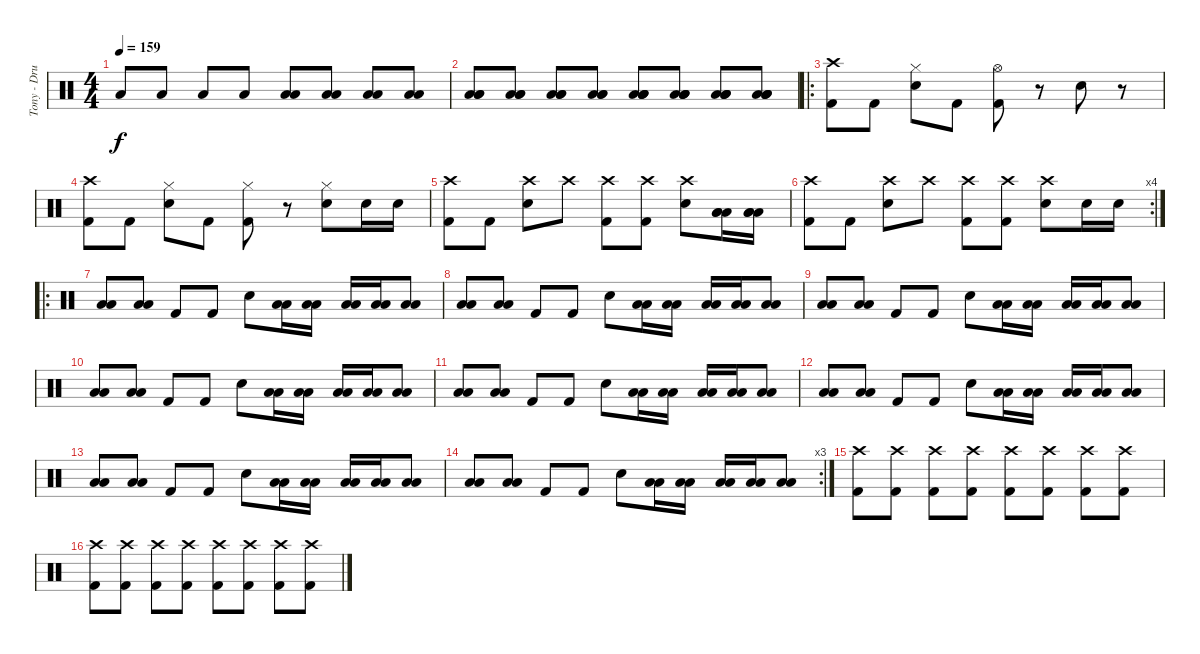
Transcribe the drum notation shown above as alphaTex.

\track ("Tony - Drums" "Tony - Dru") {instrument percussion}
\staff {score}
\articulation defaults
\ts (4 4)
\tempo 159
\clef neutral
\ks c "Low Tom (hit)".8{dy f} "Low Tom (hit)".8 "Low Tom (hit)".8 "Low Tom (hit)".8
("Low Tom (hit)" "Low Tom (hit)").8 ("Low Tom (hit)" "Low Tom (hit)").8 ("Low Tom (hit)" "Low Tom (hit)").8 ("Low Tom (hit)" "Low Tom (hit)").8 |
("Low Tom (hit)" "Low Tom (hit)" "Low Floor Tom (hit)").8 ("Low Tom (hit)" "Low Tom (hit)" "Low Floor Tom (hit)").8 ("Low Tom (hit)" "Low Tom (hit)" "Low Floor Tom (hit)").8 ("Low Tom (hit)" "Low Tom (hit)" "Low Floor Tom (hit)").8 ("Low Tom (hit)" "Low Tom (hit)" "Low Floor Tom (hit)" "Low Floor Tom (hit)").8 ("Low Tom (hit)" "Low Tom (hit)" "Low Floor Tom (hit)" "Low Floor Tom (hit)").8 ("Low Tom (hit)" "Low Tom (hit)" "Low Floor Tom (hit)" "Low Floor Tom (hit)").8 ("Low Tom (hit)" "Low Tom (hit)" "Low Floor Tom (hit)" "Low Floor Tom (hit)").8 |
\ro
("Kick (hit) 2" "Crash high (hit)").8 "Kick (hit) 2".8 ("Snare (hit) 2" "Hi-Hat (closed)").8 "Kick (hit) 2".8 ("Kick (hit) 2" "Hi-Hat (open)").8 r.8 "Snare (hit) 2".8 r.8 |
("Kick (hit) 2" "Crash high (hit)").8 "Kick (hit) 2".8 ("Snare (hit) 2" "Hi-Hat (closed)").8 "Kick (hit) 2".8 ("Kick (hit) 2" "Hi-Hat (closed)").8 r.8 ("Snare (hit) 2" "Hi-Hat (closed)").8 "Snare (hit) 2".16 "Snare (hit) 2".16 |
("Kick (hit) 2" "Crash high (hit)").8 "Kick (hit) 2".8 ("Crash high (hit)" "Snare (hit) 2").8 "Crash high (hit)".8 ("Kick (hit) 2" "Crash high (hit)").8 ("Kick (hit) 2" "Crash high (hit)").8 ("Crash high (hit)" "Snare (hit) 2").8 ("Low Floor Tom (hit)" "Low Floor Tom (hit)" "Low Floor Tom (hit)").16 ("Low Floor Tom (hit)" "Low Floor Tom (hit)" "Low Floor Tom (hit)").16 |
\rc 4
("Kick (hit) 2" "Crash high (hit)").8 "Kick (hit) 2".8 ("Crash high (hit)" "Snare (hit) 2").8 "Crash high (hit)".8 ("Kick (hit) 2" "Crash high (hit)").8 ("Kick (hit) 2" "Crash high (hit)").8 ("Crash high (hit)" "Snare (hit) 2").8 "Snare (hit) 2".16 "Snare (hit) 2".16 |
\ro
("Low Floor Tom (hit)" "Low Tom (hit)").8 ("Low Floor Tom (hit)" "Low Tom (hit)").8 "Kick (hit) 2".8 "Kick (hit) 2".8 "Snare (hit) 2".8 ("Low Tom (hit)" "Low Tom (hit)").16 ("Low Tom (hit)" "Low Tom (hit)").16 ("Low Floor Tom (hit)" "Low Floor Tom (hit)").16 ("Low Floor Tom (hit)" "Low Floor Tom (hit)").16 ("Low Floor Tom (hit)" "Low Floor Tom (hit)").8 |
("Low Floor Tom (hit)" "Low Tom (hit)").8 ("Low Floor Tom (hit)" "Low Tom (hit)").8 "Kick (hit) 2".8 "Kick (hit) 2".8 "Snare (hit) 2".8 ("Low Tom (hit)" "Low Tom (hit)").16 ("Low Tom (hit)" "Low Tom (hit)").16 ("Low Floor Tom (hit)" "Low Floor Tom (hit)").16 ("Low Floor Tom (hit)" "Low Floor Tom (hit)").16 ("Low Floor Tom (hit)" "Low Floor Tom (hit)").8 |
("Low Floor Tom (hit)" "Low Tom (hit)").8 ("Low Floor Tom (hit)" "Low Tom (hit)").8 "Kick (hit) 2".8 "Kick (hit) 2".8 "Snare (hit) 2".8 ("Low Tom (hit)" "Low Tom (hit)").16 ("Low Tom (hit)" "Low Tom (hit)").16 ("Low Floor Tom (hit)" "Low Floor Tom (hit)").16 ("Low Floor Tom (hit)" "Low Floor Tom (hit)").16 ("Low Floor Tom (hit)" "Low Floor Tom (hit)").8 |
("Low Floor Tom (hit)" "Low Tom (hit)").8 ("Low Floor Tom (hit)" "Low Tom (hit)").8 "Kick (hit) 2".8 "Kick (hit) 2".8 "Snare (hit) 2".8 ("Low Tom (hit)" "Low Tom (hit)").16 ("Low Tom (hit)" "Low Tom (hit)").16 ("Low Floor Tom (hit)" "Low Floor Tom (hit)").16 ("Low Floor Tom (hit)" "Low Floor Tom (hit)").16 ("Low Floor Tom (hit)" "Low Floor Tom (hit)").8 |
("Low Floor Tom (hit)" "Low Tom (hit)").8 ("Low Floor Tom (hit)" "Low Tom (hit)").8 "Kick (hit) 2".8 "Kick (hit) 2".8 "Snare (hit) 2".8 ("Low Tom (hit)" "Low Tom (hit)").16 ("Low Tom (hit)" "Low Tom (hit)").16 ("Low Floor Tom (hit)" "Low Floor Tom (hit)").16 ("Low Floor Tom (hit)" "Low Floor Tom (hit)").16 ("Low Floor Tom (hit)" "Low Floor Tom (hit)").8 |
("Low Floor Tom (hit)" "Low Tom (hit)").8 ("Low Floor Tom (hit)" "Low Tom (hit)").8 "Kick (hit) 2".8 "Kick (hit) 2".8 "Snare (hit) 2".8 ("Low Tom (hit)" "Low Tom (hit)").16 ("Low Tom (hit)" "Low Tom (hit)").16 ("Low Floor Tom (hit)" "Low Floor Tom (hit)").16 ("Low Floor Tom (hit)" "Low Floor Tom (hit)").16 ("Low Floor Tom (hit)" "Low Floor Tom (hit)").8 |
("Low Floor Tom (hit)" "Low Tom (hit)").8 ("Low Floor Tom (hit)" "Low Tom (hit)").8 "Kick (hit) 2".8 "Kick (hit) 2".8 "Snare (hit) 2".8 ("Low Tom (hit)" "Low Tom (hit)").16 ("Low Tom (hit)" "Low Tom (hit)").16 ("Low Floor Tom (hit)" "Low Floor Tom (hit)").16 ("Low Floor Tom (hit)" "Low Floor Tom (hit)").16 ("Low Floor Tom (hit)" "Low Floor Tom (hit)").8 |
\rc 3
("Low Floor Tom (hit)" "Low Tom (hit)").8 ("Low Floor Tom (hit)" "Low Tom (hit)").8 "Kick (hit) 2".8 "Kick (hit) 2".8 "Snare (hit) 2".8 ("Low Tom (hit)" "Low Tom (hit)").16 ("Low Tom (hit)" "Low Tom (hit)").16 ("Low Floor Tom (hit)" "Low Floor Tom (hit)").16 ("Low Floor Tom (hit)" "Low Floor Tom (hit)").16 ("Low Floor Tom (hit)" "Low Floor Tom (hit)").8 |
("Kick (hit) 2" "Crash high (hit)").8 ("Kick (hit) 2" "Crash high (hit)").8 ("Kick (hit) 2" "Crash high (hit)").8 ("Kick (hit) 2" "Crash high (hit)").8 ("Kick (hit) 2" "Crash high (hit)").8 ("Kick (hit) 2" "Crash high (hit)").8 ("Kick (hit) 2" "Crash high (hit)").8 ("Kick (hit) 2" "Crash high (hit)").8 |
("Kick (hit) 2" "Crash high (hit)").8 ("Kick (hit) 2" "Crash high (hit)").8 ("Kick (hit) 2" "Crash high (hit)").8 ("Kick (hit) 2" "Crash high (hit)").8 ("Kick (hit) 2" "Crash high (hit)").8 ("Kick (hit) 2" "Crash high (hit)").8 ("Kick (hit) 2" "Crash high (hit)").8 ("Kick (hit) 2" "Crash high (hit)").8
